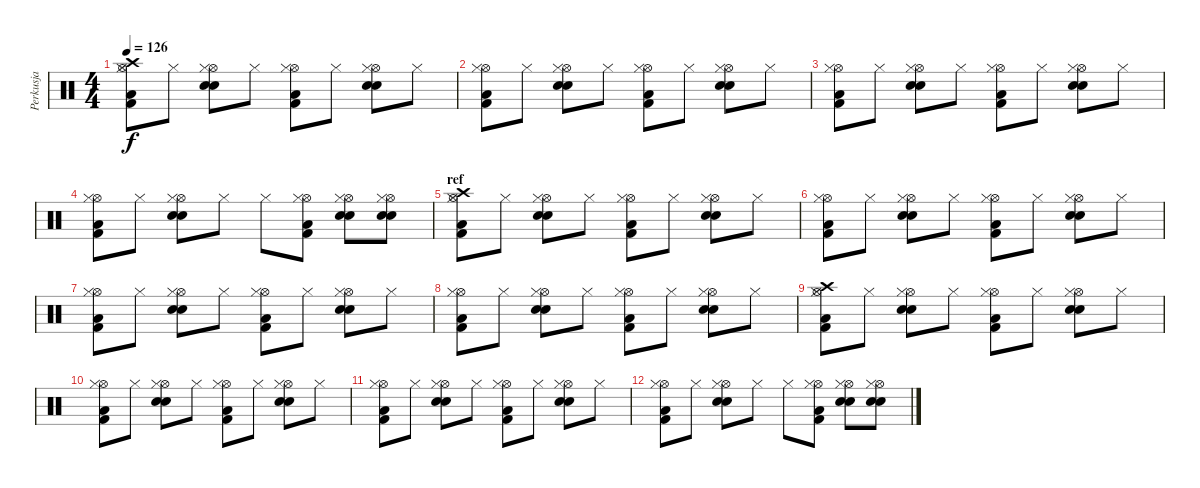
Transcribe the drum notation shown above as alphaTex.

\track ("Perkusja" "Perkusja") {instrument percussion}
\staff {score}
\articulation defaults
\ts (4 4)
\tempo 126
\clef neutral
\ks c
("Hi-Hat (open)" "Kick (hit) 2" "Crash high (hit)" "Hi-Hat (closed)" "Low Tom (hit)").8{dy f} "Hi-Hat (closed)".8 ("Hi-Hat (open)" "Snare (hit) 2" "Hi-Hat (closed)" "Electric Snare (hit)").8 "Hi-Hat (closed)".8 ("Hi-Hat (open)" "Kick (hit) 2" "Hi-Hat (closed)" "Low Tom (hit)").8 "Hi-Hat (closed)".8 ("Hi-Hat (open)" "Snare (hit) 2" "Hi-Hat (closed)" "Electric Snare (hit)").8 "Hi-Hat (closed)".8 |
("Hi-Hat (open)" "Kick (hit) 2" "Hi-Hat (closed)" "Low Tom (hit)").8 "Hi-Hat (closed)".8 ("Hi-Hat (open)" "Snare (hit) 2" "Hi-Hat (closed)" "Electric Snare (hit)").8 "Hi-Hat (closed)".8 ("Hi-Hat (open)" "Kick (hit) 2" "Hi-Hat (closed)" "Low Tom (hit)").8 "Hi-Hat (closed)".8 ("Hi-Hat (open)" "Snare (hit) 2" "Hi-Hat (closed)" "Electric Snare (hit)").8 "Hi-Hat (closed)".8 |
("Hi-Hat (open)" "Kick (hit) 2" "Hi-Hat (closed)" "Low Tom (hit)").8 "Hi-Hat (closed)".8 ("Hi-Hat (open)" "Snare (hit) 2" "Hi-Hat (closed)" "Electric Snare (hit)").8 "Hi-Hat (closed)".8 ("Hi-Hat (open)" "Kick (hit) 2" "Hi-Hat (closed)" "Low Tom (hit)").8 "Hi-Hat (closed)".8 ("Hi-Hat (open)" "Snare (hit) 2" "Hi-Hat (closed)" "Electric Snare (hit)").8 "Hi-Hat (closed)".8 |
("Hi-Hat (open)" "Kick (hit) 2" "Hi-Hat (closed)" "Low Tom (hit)").8 "Hi-Hat (closed)".8 ("Hi-Hat (open)" "Snare (hit) 2" "Hi-Hat (closed)" "Electric Snare (hit)").8 "Hi-Hat (closed)".8 "Hi-Hat (closed)".8 ("Hi-Hat (open)" "Kick (hit) 2" "Hi-Hat (closed)" "Low Tom (hit)").8 ("Hi-Hat (open)" "Snare (hit) 2" "Hi-Hat (closed)" "Electric Snare (hit)").8 ("Hi-Hat (open)" "Snare (hit) 2" "Hi-Hat (closed)" "Electric Snare (hit)").8 |
\section ("" "ref")
("Hi-Hat (open)" "Kick (hit) 2" "Crash high (hit)" "Hi-Hat (closed)" "Low Tom (hit)").8 "Hi-Hat (closed)".8 ("Hi-Hat (open)" "Snare (hit) 2" "Hi-Hat (closed)" "Electric Snare (hit)").8 "Hi-Hat (closed)".8 ("Hi-Hat (open)" "Kick (hit) 2" "Hi-Hat (closed)" "Low Tom (hit)").8 "Hi-Hat (closed)".8 ("Hi-Hat (open)" "Snare (hit) 2" "Hi-Hat (closed)" "Electric Snare (hit)").8 "Hi-Hat (closed)".8 |
("Hi-Hat (open)" "Kick (hit) 2" "Hi-Hat (closed)" "Low Tom (hit)").8 "Hi-Hat (closed)".8 ("Hi-Hat (open)" "Snare (hit) 2" "Hi-Hat (closed)" "Electric Snare (hit)").8 "Hi-Hat (closed)".8 ("Hi-Hat (open)" "Kick (hit) 2" "Hi-Hat (closed)" "Low Tom (hit)").8 "Hi-Hat (closed)".8 ("Hi-Hat (open)" "Snare (hit) 2" "Hi-Hat (closed)" "Electric Snare (hit)").8 "Hi-Hat (closed)".8 |
("Hi-Hat (open)" "Kick (hit) 2" "Hi-Hat (closed)" "Low Tom (hit)").8 "Hi-Hat (closed)".8 ("Hi-Hat (open)" "Snare (hit) 2" "Hi-Hat (closed)" "Electric Snare (hit)").8 "Hi-Hat (closed)".8 ("Hi-Hat (open)" "Kick (hit) 2" "Hi-Hat (closed)" "Low Tom (hit)").8 "Hi-Hat (closed)".8 ("Hi-Hat (open)" "Snare (hit) 2" "Hi-Hat (closed)" "Electric Snare (hit)").8 "Hi-Hat (closed)".8 |
("Hi-Hat (open)" "Kick (hit) 2" "Hi-Hat (closed)" "Low Tom (hit)").8 "Hi-Hat (closed)".8 ("Hi-Hat (open)" "Snare (hit) 2" "Hi-Hat (closed)" "Electric Snare (hit)").8 "Hi-Hat (closed)".8 ("Hi-Hat (open)" "Kick (hit) 2" "Hi-Hat (closed)" "Low Tom (hit)").8 "Hi-Hat (closed)".8 ("Hi-Hat (open)" "Snare (hit) 2" "Hi-Hat (closed)" "Electric Snare (hit)").8 "Hi-Hat (closed)".8 |
("Hi-Hat (open)" "Kick (hit) 2" "Crash high (hit)" "Hi-Hat (closed)" "Low Tom (hit)").8 "Hi-Hat (closed)".8 ("Hi-Hat (open)" "Snare (hit) 2" "Hi-Hat (closed)" "Electric Snare (hit)").8 "Hi-Hat (closed)".8 ("Hi-Hat (open)" "Kick (hit) 2" "Hi-Hat (closed)" "Low Tom (hit)").8 "Hi-Hat (closed)".8 ("Hi-Hat (open)" "Snare (hit) 2" "Hi-Hat (closed)" "Electric Snare (hit)").8 "Hi-Hat (closed)".8 |
("Hi-Hat (open)" "Kick (hit) 2" "Hi-Hat (closed)" "Low Tom (hit)").8 "Hi-Hat (closed)".8 ("Hi-Hat (open)" "Snare (hit) 2" "Hi-Hat (closed)" "Electric Snare (hit)").8 "Hi-Hat (closed)".8 ("Hi-Hat (open)" "Kick (hit) 2" "Hi-Hat (closed)" "Low Tom (hit)").8 "Hi-Hat (closed)".8 ("Hi-Hat (open)" "Snare (hit) 2" "Hi-Hat (closed)" "Electric Snare (hit)").8 "Hi-Hat (closed)".8 |
("Hi-Hat (open)" "Kick (hit) 2" "Hi-Hat (closed)" "Low Tom (hit)").8 "Hi-Hat (closed)".8 ("Hi-Hat (open)" "Snare (hit) 2" "Hi-Hat (closed)" "Electric Snare (hit)").8 "Hi-Hat (closed)".8 ("Hi-Hat (open)" "Kick (hit) 2" "Hi-Hat (closed)" "Low Tom (hit)").8 "Hi-Hat (closed)".8 ("Hi-Hat (open)" "Snare (hit) 2" "Hi-Hat (closed)" "Electric Snare (hit)").8 "Hi-Hat (closed)".8 |
("Hi-Hat (open)" "Kick (hit) 2" "Hi-Hat (closed)" "Low Tom (hit)").8 "Hi-Hat (closed)".8 ("Hi-Hat (open)" "Snare (hit) 2" "Hi-Hat (closed)" "Electric Snare (hit)").8 "Hi-Hat (closed)".8 "Hi-Hat (closed)".8 ("Hi-Hat (open)" "Kick (hit) 2" "Hi-Hat (closed)" "Low Tom (hit)").8 ("Hi-Hat (open)" "Snare (hit) 2" "Hi-Hat (closed)" "Electric Snare (hit)").8 ("Hi-Hat (open)" "Snare (hit) 2" "Hi-Hat (closed)" "Electric Snare (hit)").8
